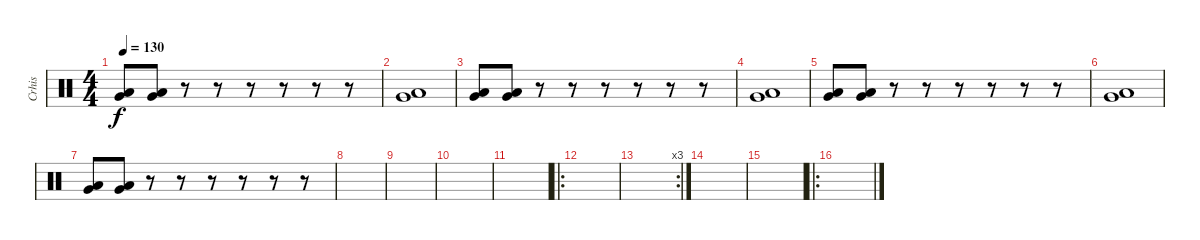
\track ("Crhis" "Crhis") {instrument percussion}
\staff {score}
\articulation defaults
\ts (4 4)
\tempo 130
\clef neutral
\ks c
("Very Low Tom (hit)" "Low Floor Tom (hit)").8{dy f} ("Very Low Tom (hit)" "Low Floor Tom (hit)").8 r.8 r.8 r.8 r.8 r.8 r.8 |
("Very Low Tom (hit)" "Low Floor Tom (hit)").1 |
("Very Low Tom (hit)" "Low Floor Tom (hit)").8 ("Very Low Tom (hit)" "Low Floor Tom (hit)").8 r.8 r.8 r.8 r.8 r.8 r.8 |
("Very Low Tom (hit)" "Low Floor Tom (hit)").1 |
("Very Low Tom (hit)" "Low Floor Tom (hit)").8 ("Very Low Tom (hit)" "Low Floor Tom (hit)").8 r.8 r.8 r.8 r.8 r.8 r.8 |
("Very Low Tom (hit)" "Low Floor Tom (hit)").1 |
("Very Low Tom (hit)" "Low Floor Tom (hit)").8 ("Very Low Tom (hit)" "Low Floor Tom (hit)").8 r.8 r.8 r.8 r.8 r.8 r.8 |
|
|
|
|
\ro
|
\rc 3
|
|
|
\ro
